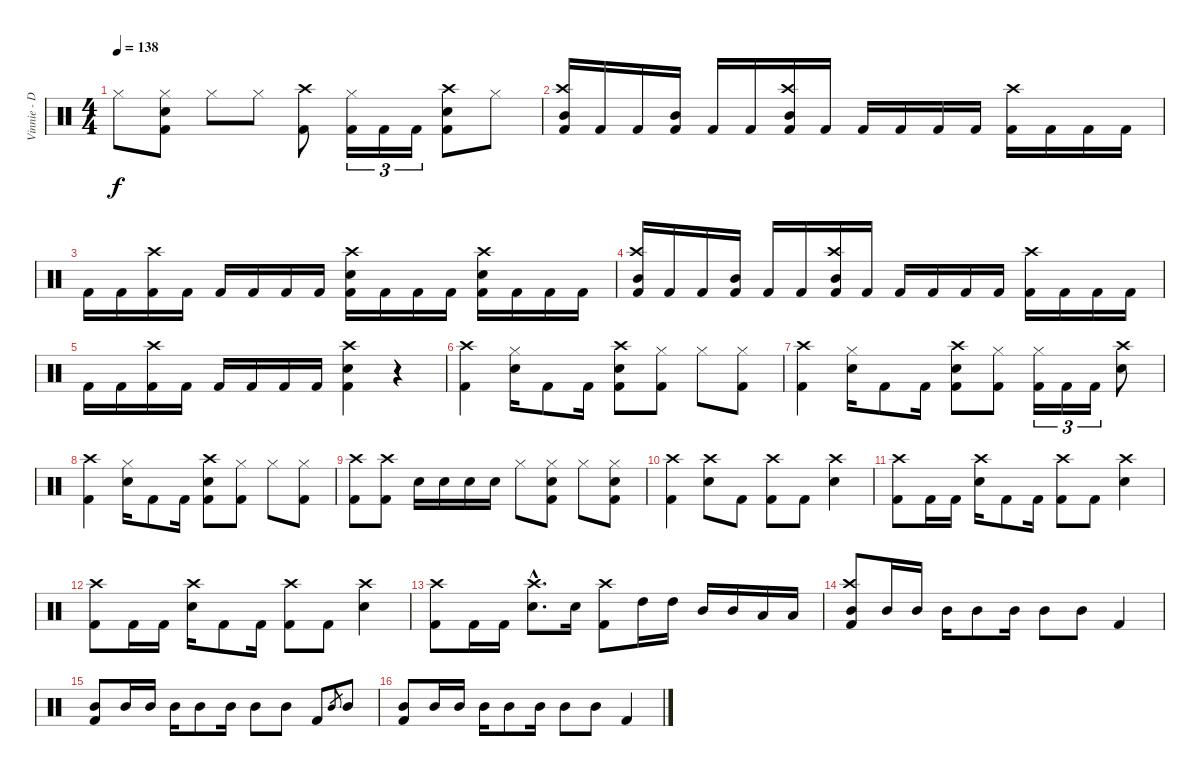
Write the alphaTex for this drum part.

\track ("Vinnie - Drums" "Vinnie - D") {instrument percussion}
\staff {score}
\articulation defaults
\ts (4 4)
\tempo 138
\clef neutral
\ks c "Hi-Hat (closed)".8{dy f}
("Hi-Hat (closed)" "Electric Snare (hit)" "Kick (hit) 2").8 "Hi-Hat (closed)".8 "Hi-Hat (closed)".8 ("Crash high (hit)" "Kick (hit) 2").8 ("Hi-Hat (closed)" "Kick (hit) 2").16{tu (3 2)} "Kick (hit) 2".16{tu (3 2)} "Kick (hit) 2".16{tu (3 2)} ("Crash high (hit)" "Electric Snare (hit)" "Kick (hit) 2").8 "Hi-Hat (closed)".8 |
("Crash high (hit)" "Mid Tom (hit)" "Kick (hit) 2").16 "Kick (hit) 2".16 "Kick (hit) 2".16 ("Mid Tom (hit)" "Kick (hit) 2").16 "Kick (hit) 2".16 "Kick (hit) 2".16 ("Crash high (hit)" "Mid Tom (hit)" "Kick (hit) 2").16 "Kick (hit) 2".16 "Kick (hit) 2".16 "Kick (hit) 2".16 "Kick (hit) 2".16 "Kick (hit) 2".16 ("Crash high (hit)" "Kick (hit) 2").16 "Kick (hit) 2".16 "Kick (hit) 2".16 "Kick (hit) 2".16 |
"Kick (hit) 2".16 "Kick (hit) 2".16 ("Crash high (hit)" "Kick (hit) 2").16 "Kick (hit) 2".16 "Kick (hit) 2".16 "Kick (hit) 2".16 "Kick (hit) 2".16 "Kick (hit) 2".16 ("Crash high (hit)" "Electric Snare (hit)" "Kick (hit) 2").16 "Kick (hit) 2".16 "Kick (hit) 2".16 "Kick (hit) 2".16 ("Crash high (hit)" "Electric Snare (hit)" "Kick (hit) 2").16 "Kick (hit) 2".16 "Kick (hit) 2".16 "Kick (hit) 2".16 |
("Crash high (hit)" "Mid Tom (hit)" "Kick (hit) 2").16 "Kick (hit) 2".16 "Kick (hit) 2".16 ("Mid Tom (hit)" "Kick (hit) 2").16 "Kick (hit) 2".16 "Kick (hit) 2".16 ("Crash high (hit)" "Mid Tom (hit)" "Kick (hit) 2").16 "Kick (hit) 2".16 "Kick (hit) 2".16 "Kick (hit) 2".16 "Kick (hit) 2".16 "Kick (hit) 2".16 ("Crash high (hit)" "Kick (hit) 2").16 "Kick (hit) 2".16 "Kick (hit) 2".16 "Kick (hit) 2".16 |
"Kick (hit) 2".16 "Kick (hit) 2".16 ("Crash high (hit)" "Kick (hit) 2").16 "Kick (hit) 2".16 "Kick (hit) 2".16 "Kick (hit) 2".16 "Kick (hit) 2".16 "Kick (hit) 2".16 ("Crash high (hit)" "Electric Snare (hit)" "Kick (hit) 2").4 r.4 |
("Crash high (hit)" "Kick (hit) 2").4 ("Hi-Hat (closed)" "Electric Snare (hit)").16 "Kick (hit) 2".8 "Kick (hit) 2".16 ("Crash high (hit)" "Electric Snare (hit)" "Kick (hit) 2").8 ("Hi-Hat (closed)" "Kick (hit) 2").8 "Hi-Hat (closed)".8 ("Hi-Hat (closed)" "Kick (hit) 2").8 |
("Crash high (hit)" "Kick (hit) 2").4 ("Hi-Hat (closed)" "Electric Snare (hit)").16 "Kick (hit) 2".8 "Kick (hit) 2".16 ("Crash high (hit)" "Electric Snare (hit)" "Kick (hit) 2").8 ("Hi-Hat (closed)" "Kick (hit) 2").8 ("Hi-Hat (closed)" "Kick (hit) 2").16{tu (3 2)} "Kick (hit) 2".16{tu (3 2)} "Kick (hit) 2".16{tu (3 2)} ("Crash high (hit)" "Electric Snare (hit)").8 |
("Crash high (hit)" "Kick (hit) 2").4 ("Hi-Hat (closed)" "Electric Snare (hit)").16 "Kick (hit) 2".8 "Kick (hit) 2".16 ("Crash high (hit)" "Electric Snare (hit)" "Kick (hit) 2").8 ("Hi-Hat (closed)" "Kick (hit) 2").8 "Hi-Hat (closed)".8 ("Hi-Hat (closed)" "Kick (hit) 2").8 |
("Crash high (hit)" "Kick (hit) 2").8 ("Crash high (hit)" "Kick (hit) 2").8 "Electric Snare (hit)".16 "Electric Snare (hit)".16 "Electric Snare (hit)".16 "Electric Snare (hit)".16 "Hi-Hat (closed)".8 ("Hi-Hat (closed)" "Electric Snare (hit)" "Kick (hit) 2").8 "Hi-Hat (closed)".8 ("Hi-Hat (closed)" "Electric Snare (hit)" "Kick (hit) 2").8 |
("Crash high (hit)" "Kick (hit) 2").4 ("Crash high (hit)" "Electric Snare (hit)").8 "Kick (hit) 2".8 ("Crash high (hit)" "Kick (hit) 2").8 "Kick (hit) 2".8 ("Crash high (hit)" "Electric Snare (hit)").4 |
("Crash high (hit)" "Kick (hit) 2").8 "Kick (hit) 2".16 "Kick (hit) 2".16 ("Crash high (hit)" "Electric Snare (hit)").16 "Kick (hit) 2".8 "Kick (hit) 2".16 ("Crash high (hit)" "Kick (hit) 2").8 "Kick (hit) 2".8 ("Crash high (hit)" "Electric Snare (hit)").4 |
("Crash high (hit)" "Kick (hit) 2").8 "Kick (hit) 2".16 "Kick (hit) 2".16 ("Crash high (hit)" "Electric Snare (hit)").16 "Kick (hit) 2".8 "Kick (hit) 2".16 ("Crash high (hit)" "Kick (hit) 2").8 "Kick (hit) 2".8 ("Crash high (hit)" "Electric Snare (hit)").4 |
("Crash high (hit)" "Kick (hit) 2").8 "Kick (hit) 2".16 "Kick (hit) 2".16 ("Crash high (hit)"{hac} "Electric Snare (hit)"{hac}).8{d} "Electric Snare (hit)".16 ("Crash high (hit)" "Kick (hit) 2").8 "High Tom (hit)".16 "High Tom (hit)".16 "Mid Tom (hit)".16 "Mid Tom (hit)".16 "Low Tom (hit)".16 "Low Tom (hit)".16 |
("Crash high (hit)" "Mid Tom (hit)" "Kick (hit) 2").8 "Mid Tom (hit)".16 "Mid Tom (hit)".16 "Mid Tom (hit)".16 "Mid Tom (hit)".8 "Mid Tom (hit)".16 "Mid Tom (hit)".8 "Mid Tom (hit)".8 "Kick (hit) 2".4 |
("Mid Tom (hit)" "Kick (hit) 2").8 "Mid Tom (hit)".16 "Mid Tom (hit)".16 "Mid Tom (hit)".16 "Mid Tom (hit)".8 "Mid Tom (hit)".16 "Mid Tom (hit)".8 "Mid Tom (hit)".8 "Kick (hit) 2".8 "Mid Tom (hit)".8{gr} "Mid Tom (hit)".8 |
("Mid Tom (hit)" "Kick (hit) 2").8 "Mid Tom (hit)".16 "Mid Tom (hit)".16 "Mid Tom (hit)".16 "Mid Tom (hit)".8 "Mid Tom (hit)".16 "Mid Tom (hit)".8 "Mid Tom (hit)".8 "Kick (hit) 2".4
